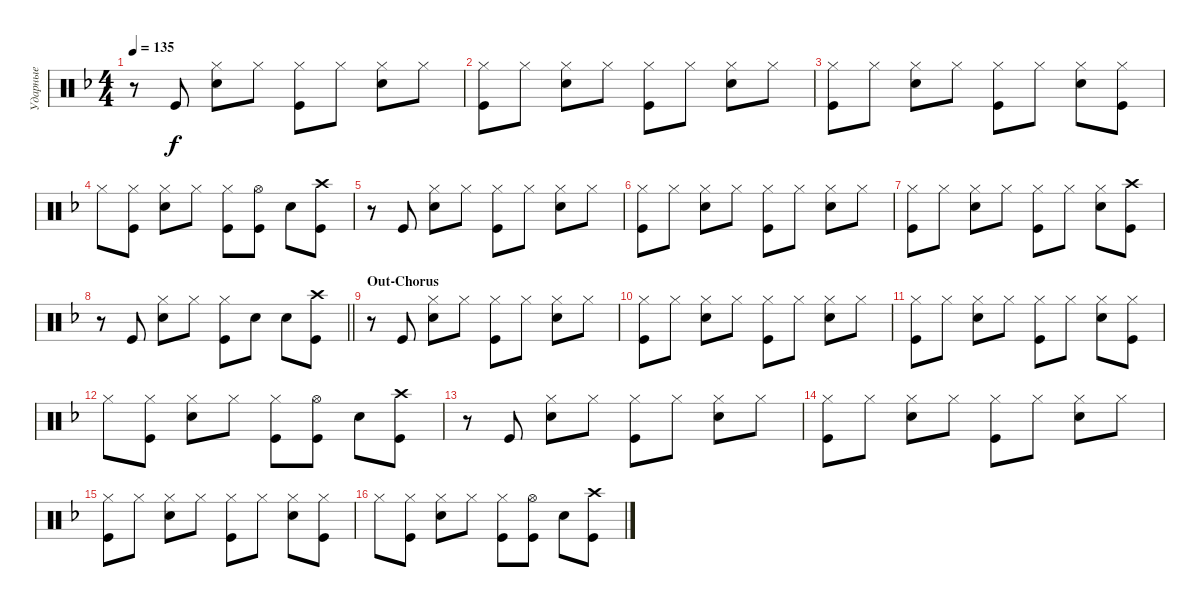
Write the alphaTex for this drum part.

\track ("Ударные" "Ударные") {instrument percussion}
\staff {score}
\articulation defaults
\ts (4 4)
\tempo 135
\clef neutral
\ks dminor
r.8{dy f} "Kick (hit)".8 ("Hi-Hat (closed)" "Snare (hit) 2").8 "Hi-Hat (closed)".8 ("Hi-Hat (closed)" "Kick (hit)").8 "Hi-Hat (closed)".8 ("Hi-Hat (closed)" "Snare (hit) 2").8 "Hi-Hat (closed)".8 |
("Hi-Hat (closed)" "Kick (hit)").8 "Hi-Hat (closed)".8 ("Hi-Hat (closed)" "Snare (hit) 2").8 "Hi-Hat (closed)".8 ("Hi-Hat (closed)" "Kick (hit)").8 "Hi-Hat (closed)".8 ("Hi-Hat (closed)" "Snare (hit) 2").8 "Hi-Hat (closed)".8 |
("Hi-Hat (closed)" "Kick (hit)").8 "Hi-Hat (closed)".8 ("Hi-Hat (closed)" "Snare (hit) 2").8 "Hi-Hat (closed)".8 ("Hi-Hat (closed)" "Kick (hit)").8 "Hi-Hat (closed)".8 ("Hi-Hat (closed)" "Snare (hit) 2").8 ("Hi-Hat (closed)" "Kick (hit)").8 |
"Hi-Hat (closed)".8 ("Hi-Hat (closed)" "Kick (hit)").8 ("Hi-Hat (closed)" "Snare (hit) 2").8 "Hi-Hat (closed)".8 ("Hi-Hat (closed)" "Kick (hit)").8 ("Hi-Hat (open)" "Kick (hit)").8 "Snare (hit) 2".8 ("Kick (hit)" "Crash high (hit)").8 |
r.8 "Kick (hit)".8 ("Hi-Hat (closed)" "Snare (hit) 2").8 "Hi-Hat (closed)".8 ("Hi-Hat (closed)" "Kick (hit)").8 "Hi-Hat (closed)".8 ("Hi-Hat (closed)" "Snare (hit) 2").8 "Hi-Hat (closed)".8 |
("Hi-Hat (closed)" "Kick (hit)").8 "Hi-Hat (closed)".8 ("Hi-Hat (closed)" "Snare (hit) 2").8 "Hi-Hat (closed)".8 ("Hi-Hat (closed)" "Kick (hit)").8 "Hi-Hat (closed)".8 ("Hi-Hat (closed)" "Snare (hit) 2").8 "Hi-Hat (closed)".8 |
("Hi-Hat (closed)" "Kick (hit)").8 "Hi-Hat (closed)".8 ("Hi-Hat (closed)" "Snare (hit) 2").8 "Hi-Hat (closed)".8 ("Hi-Hat (closed)" "Kick (hit)").8 "Hi-Hat (closed)".8 ("Hi-Hat (closed)" "Snare (hit) 2").8 ("Crash high (hit)" "Kick (hit)").8 |
\barLineRight lightlight
r.8 "Kick (hit)".8 ("Hi-Hat (closed)" "Snare (hit) 2").8 "Hi-Hat (closed)".8 ("Hi-Hat (closed)" "Kick (hit)").8 "Snare (hit) 2".8 "Snare (hit) 2".8 ("Kick (hit)" "Crash high (hit)").8 |
\section ("" "Out-Chorus")
r.8 "Kick (hit)".8 ("Hi-Hat (closed)" "Snare (hit) 2").8 "Hi-Hat (closed)".8 ("Hi-Hat (closed)" "Kick (hit)").8 "Hi-Hat (closed)".8 ("Hi-Hat (closed)" "Snare (hit) 2").8 "Hi-Hat (closed)".8 |
("Hi-Hat (closed)" "Kick (hit)").8 "Hi-Hat (closed)".8 ("Hi-Hat (closed)" "Snare (hit) 2").8 "Hi-Hat (closed)".8 ("Hi-Hat (closed)" "Kick (hit)").8 "Hi-Hat (closed)".8 ("Hi-Hat (closed)" "Snare (hit) 2").8 "Hi-Hat (closed)".8 |
("Hi-Hat (closed)" "Kick (hit)").8 "Hi-Hat (closed)".8 ("Hi-Hat (closed)" "Snare (hit) 2").8 "Hi-Hat (closed)".8 ("Hi-Hat (closed)" "Kick (hit)").8 "Hi-Hat (closed)".8 ("Hi-Hat (closed)" "Snare (hit) 2").8 ("Hi-Hat (closed)" "Kick (hit)").8 |
"Hi-Hat (closed)".8 ("Hi-Hat (closed)" "Kick (hit)").8 ("Hi-Hat (closed)" "Snare (hit) 2").8 "Hi-Hat (closed)".8 ("Hi-Hat (closed)" "Kick (hit)").8 ("Hi-Hat (open)" "Kick (hit)").8 "Snare (hit) 2".8 ("Kick (hit)" "Crash high (hit)").8 |
r.8 "Kick (hit)".8 ("Hi-Hat (closed)" "Snare (hit) 2").8 "Hi-Hat (closed)".8 ("Hi-Hat (closed)" "Kick (hit)").8 "Hi-Hat (closed)".8 ("Hi-Hat (closed)" "Snare (hit) 2").8 "Hi-Hat (closed)".8 |
("Hi-Hat (closed)" "Kick (hit)").8 "Hi-Hat (closed)".8 ("Hi-Hat (closed)" "Snare (hit) 2").8 "Hi-Hat (closed)".8 ("Hi-Hat (closed)" "Kick (hit)").8 "Hi-Hat (closed)".8 ("Hi-Hat (closed)" "Snare (hit) 2").8 "Hi-Hat (closed)".8 |
("Hi-Hat (closed)" "Kick (hit)").8 "Hi-Hat (closed)".8 ("Hi-Hat (closed)" "Snare (hit) 2").8 "Hi-Hat (closed)".8 ("Hi-Hat (closed)" "Kick (hit)").8 "Hi-Hat (closed)".8 ("Hi-Hat (closed)" "Snare (hit) 2").8 ("Hi-Hat (closed)" "Kick (hit)").8 |
"Hi-Hat (closed)".8 ("Hi-Hat (closed)" "Kick (hit)").8 ("Hi-Hat (closed)" "Snare (hit) 2").8 "Hi-Hat (closed)".8 ("Hi-Hat (closed)" "Kick (hit)").8 ("Hi-Hat (open)" "Kick (hit)").8 "Snare (hit) 2".8 ("Kick (hit)" "Crash high (hit)").8
